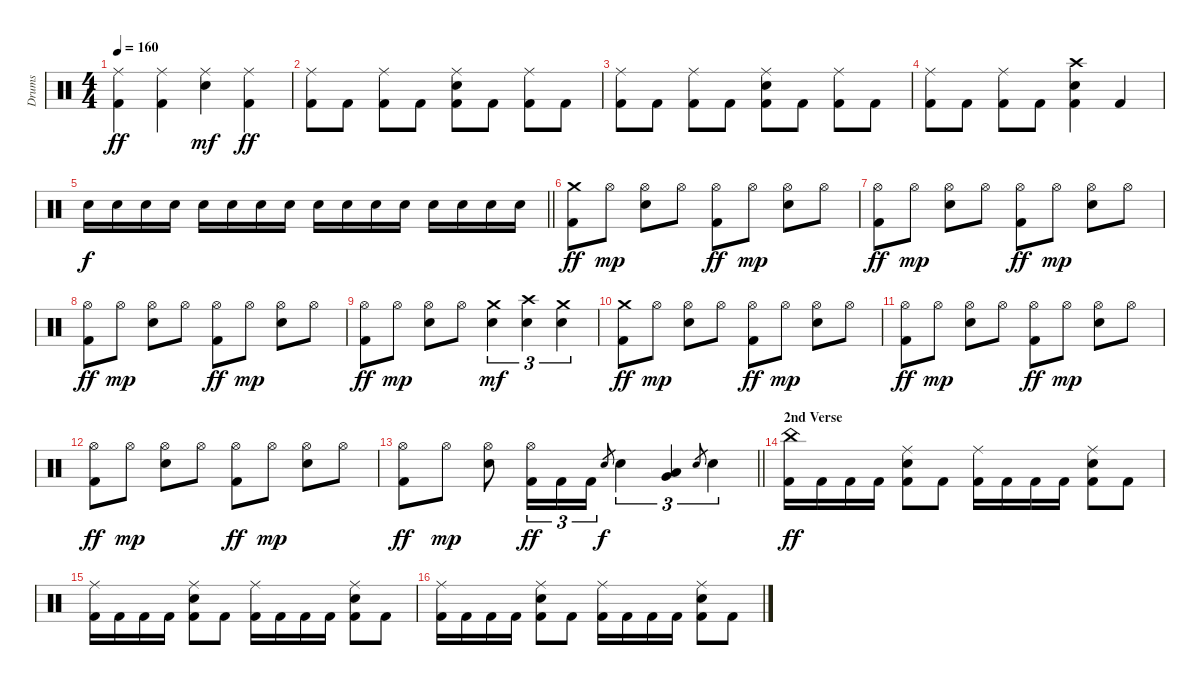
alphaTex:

\track ("Drums" "Drums") {instrument percussion}
\staff {score}
\articulation defaults
\ts (4 4)
\tempo 160
\clef neutral
\ks c
("Ride (middle)" "Kick (hit) 2").4{dy ff} ("Ride (middle)" "Kick (hit) 2").4 ("Ride (middle)" "Electric Snare (hit)").4{dy mf} ("Ride (middle)" "Kick (hit) 2").4{dy ff} |
("Ride (middle)" "Kick (hit) 2").8 "Kick (hit) 2".8 ("Ride (middle)" "Kick (hit) 2").8 "Kick (hit) 2".8 ("Ride (middle)" "Electric Snare (hit)" "Kick (hit) 2").8 "Kick (hit) 2".8 ("Ride (middle)" "Kick (hit) 2").8 "Kick (hit) 2".8 |
("Ride (middle)" "Kick (hit) 2").8 "Kick (hit) 2".8 ("Ride (middle)" "Kick (hit) 2").8 "Kick (hit) 2".8 ("Ride (middle)" "Electric Snare (hit)" "Kick (hit) 2").8 "Kick (hit) 2".8 ("Ride (middle)" "Kick (hit) 2").8 "Kick (hit) 2".8 |
("Ride (middle)" "Kick (hit) 2").8 "Kick (hit) 2".8 ("Ride (middle)" "Kick (hit) 2").8 "Kick (hit) 2".8 ("Crash high (hit)" "Electric Snare (hit)" "Kick (hit) 2").4 "Kick (hit) 2".4 |
\barLineRight lightlight "Electric Snare (hit)".16{dy f} "Electric Snare (hit)".16 "Electric Snare (hit)".16 "Electric Snare (hit)".16 "Electric Snare (hit)".16 "Electric Snare (hit)".16 "Electric Snare (hit)".16 "Electric Snare (hit)".16 "Electric Snare (hit)".16 "Electric Snare (hit)".16 "Electric Snare (hit)".16 "Electric Snare (hit)".16 "Electric Snare (hit)".16 "Electric Snare (hit)".16 "Electric Snare (hit)".16 "Electric Snare (hit)".16
|
\section ("" "")
("Crash medium (hit)" "Kick (hit) 2").8{dy ff} "Hi-Hat (open)".8{dy mp} ("Hi-Hat (open)" "Electric Snare (hit)").8 "Hi-Hat (open)".8 ("Hi-Hat (open)" "Kick (hit) 2").8{dy ff} "Hi-Hat (open)".8{dy mp} ("Hi-Hat (open)" "Electric Snare (hit)").8 "Hi-Hat (open)".8 |
("Hi-Hat (open)" "Kick (hit) 2").8{dy ff} "Hi-Hat (open)".8{dy mp} ("Hi-Hat (open)" "Electric Snare (hit)").8 "Hi-Hat (open)".8 ("Hi-Hat (open)" "Kick (hit) 2").8{dy ff} "Hi-Hat (open)".8{dy mp} ("Hi-Hat (open)" "Electric Snare (hit)").8 "Hi-Hat (open)".8 |
("Hi-Hat (open)" "Kick (hit) 2").8{dy ff} "Hi-Hat (open)".8{dy mp} ("Hi-Hat (open)" "Electric Snare (hit)").8 "Hi-Hat (open)".8 ("Hi-Hat (open)" "Kick (hit) 2").8{dy ff} "Hi-Hat (open)".8{dy mp} ("Hi-Hat (open)" "Electric Snare (hit)").8 "Hi-Hat (open)".8 |
("Hi-Hat (open)" "Kick (hit) 2").8{dy ff} "Hi-Hat (open)".8{dy mp} ("Hi-Hat (open)" "Electric Snare (hit)").8 "Hi-Hat (open)".8 ("Crash medium (hit)" "Electric Snare (hit)").4{tu (3 2) dy mf} ("Crash high (hit)" "Electric Snare (hit)").4{tu (3 2)} ("Crash medium (hit)" "Electric Snare (hit)").4{tu (3 2)} |
("Crash medium (hit)" "Kick (hit) 2").8{dy ff} "Hi-Hat (open)".8{dy mp} ("Hi-Hat (open)" "Electric Snare (hit)").8 "Hi-Hat (open)".8 ("Hi-Hat (open)" "Kick (hit) 2").8{dy ff} "Hi-Hat (open)".8{dy mp} ("Hi-Hat (open)" "Electric Snare (hit)").8 "Hi-Hat (open)".8 |
("Hi-Hat (open)" "Kick (hit) 2").8{dy ff} "Hi-Hat (open)".8{dy mp} ("Hi-Hat (open)" "Electric Snare (hit)").8 "Hi-Hat (open)".8 ("Hi-Hat (open)" "Kick (hit) 2").8{dy ff} "Hi-Hat (open)".8{dy mp} ("Hi-Hat (open)" "Electric Snare (hit)").8 "Hi-Hat (open)".8 |
("Hi-Hat (open)" "Kick (hit) 2").8{dy ff} "Hi-Hat (open)".8{dy mp} ("Hi-Hat (open)" "Electric Snare (hit)").8 "Hi-Hat (open)".8 ("Hi-Hat (open)" "Kick (hit) 2").8{dy ff} "Hi-Hat (open)".8{dy mp} ("Hi-Hat (open)" "Electric Snare (hit)").8 "Hi-Hat (open)".8 |
\barLineRight lightlight
("Hi-Hat (open)" "Kick (hit) 2").8{dy ff} "Hi-Hat (open)".8{dy mp} ("Hi-Hat (open)" "Electric Snare (hit)").8 ("Hi-Hat (open)" "Kick (hit) 2").16{tu (3 2) dy ff} "Kick (hit) 2".16{tu (3 2)} "Kick (hit) 2".16{tu (3 2)} "Electric Snare (hit)".8{gr dy f} "Electric Snare (hit)".4{tu (3 2)} ("Low Tom (hit)" "Very Low Tom (hit)").4{tu (3 2)} "Electric Snare (hit)".8{gr} "Electric Snare (hit)".4{tu (3 2)} |
\section ("" "2nd Verse")
("China (hit)" "Kick (hit) 2").16{dy ff} "Kick (hit) 2".16 "Kick (hit) 2".16 "Kick (hit) 2".16 ("Ride (middle)" "Electric Snare (hit)" "Kick (hit) 2").8 "Kick (hit) 2".8 ("Ride (middle)" "Kick (hit) 2").16 "Kick (hit) 2".16 "Kick (hit) 2".16 "Kick (hit) 2".16 ("Ride (middle)" "Electric Snare (hit)" "Kick (hit) 2").8 "Kick (hit) 2".8 |
("Ride (middle)" "Kick (hit) 2").16 "Kick (hit) 2".16 "Kick (hit) 2".16 "Kick (hit) 2".16 ("Ride (middle)" "Electric Snare (hit)" "Kick (hit) 2").8 "Kick (hit) 2".8 ("Ride (middle)" "Kick (hit) 2").16 "Kick (hit) 2".16 "Kick (hit) 2".16 "Kick (hit) 2".16 ("Ride (middle)" "Electric Snare (hit)" "Kick (hit) 2").8 "Kick (hit) 2".8 |
("Ride (middle)" "Kick (hit) 2").16 "Kick (hit) 2".16 "Kick (hit) 2".16 "Kick (hit) 2".16 ("Ride (middle)" "Electric Snare (hit)" "Kick (hit) 2").8 "Kick (hit) 2".8 ("Ride (middle)" "Kick (hit) 2").16 "Kick (hit) 2".16 "Kick (hit) 2".16 "Kick (hit) 2".16 ("Ride (middle)" "Electric Snare (hit)" "Kick (hit) 2").8 "Kick (hit) 2".8
